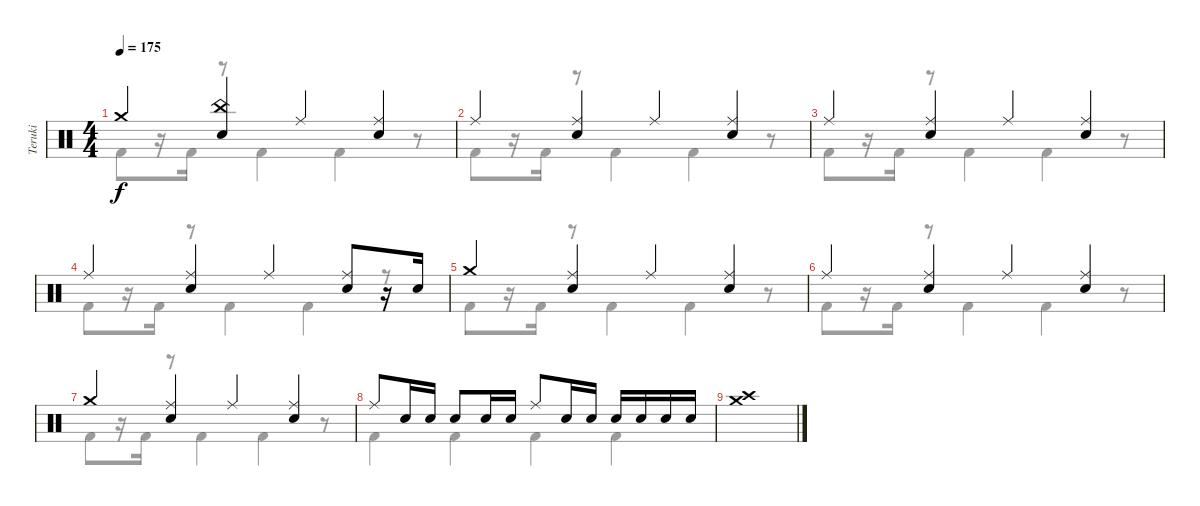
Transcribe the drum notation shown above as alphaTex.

\track ("Teruki" "Teruki") {instrument percussion}
\staff {score}
\articulation defaults
\voice
\ts (4 4)
\tempo 175
\clef neutral
\ks c "Crash medium (hit)".4{dy f}
("China (hit)" "Snare (hit) 2").4 "Ride (middle)".4 ("Ride (middle)" "Snare (hit) 2").4 |
"Ride (middle)".4 ("Ride (middle)" "Snare (hit) 2").4 "Ride (middle)".4 ("Ride (middle)" "Snare (hit) 2").4 |
"Ride (middle)".4 ("Ride (middle)" "Snare (hit) 2").4 "Ride (middle)".4 ("Ride (middle)" "Snare (hit) 2").4 |
"Ride (middle)".4 ("Ride (middle)" "Snare (hit) 2").4 "Ride (middle)".4 ("Ride (middle)" "Snare (hit) 2").8 r.16 "Snare (hit) 2".16 |
"Crash medium (hit)".4 ("Ride (middle)" "Snare (hit) 2").4 "Ride (middle)".4 ("Ride (middle)" "Snare (hit) 2").4 |
"Ride (middle)".4 ("Ride (middle)" "Snare (hit) 2").4 "Ride (middle)".4 ("Ride (middle)" "Snare (hit) 2").4 |
"Crash medium (hit)".4 ("Ride (middle)" "Snare (hit) 2").4 "Ride (middle)".4 ("Ride (middle)" "Snare (hit) 2").4 |
"Ride (middle)".8 "Snare (hit) 2".16 "Snare (hit) 2".16 "Snare (hit) 2".8 "Snare (hit) 2".16 "Snare (hit) 2".16 "Ride (middle)".8 "Snare (hit) 2".16 "Snare (hit) 2".16 "Snare (hit) 2".16 "Snare (hit) 2".16 "Snare (hit) 2".16 "Snare (hit) 2".16 |
("Crash medium (hit)" "Crash high (hit)").1 |
|
|
|
|
|
|
\voice
\clef neutral
\ottava regular
\simile none
\ks c "Kick (hit) 2".8{dy f}
r.16 "Kick (hit) 2".16 r.8 "Kick (hit) 2".4 "Kick (hit) 2".4 r.8 |
"Kick (hit) 2".8 r.16 "Kick (hit) 2".16 r.8 "Kick (hit) 2".4 "Kick (hit) 2".4 r.8 |
"Kick (hit) 2".8 r.16 "Kick (hit) 2".16 r.8 "Kick (hit) 2".4 "Kick (hit) 2".4 r.8 |
"Kick (hit) 2".8 r.16 "Kick (hit) 2".16 r.8 "Kick (hit) 2".4 "Kick (hit) 2".4 r.8 |
"Kick (hit) 2".8 r.16 "Kick (hit) 2".16 r.8 "Kick (hit) 2".4 "Kick (hit) 2".4 r.8 |
"Kick (hit) 2".8 r.16 "Kick (hit) 2".16 r.8 "Kick (hit) 2".4 "Kick (hit) 2".4 r.8 |
"Kick (hit) 2".8 r.16 "Kick (hit) 2".16 r.8 "Kick (hit) 2".4 "Kick (hit) 2".4 r.8 |
"Kick (hit) 2".4 "Kick (hit) 2".4 "Kick (hit) 2".4 "Kick (hit) 2".4 |
|
|
|
|
|
|
|
